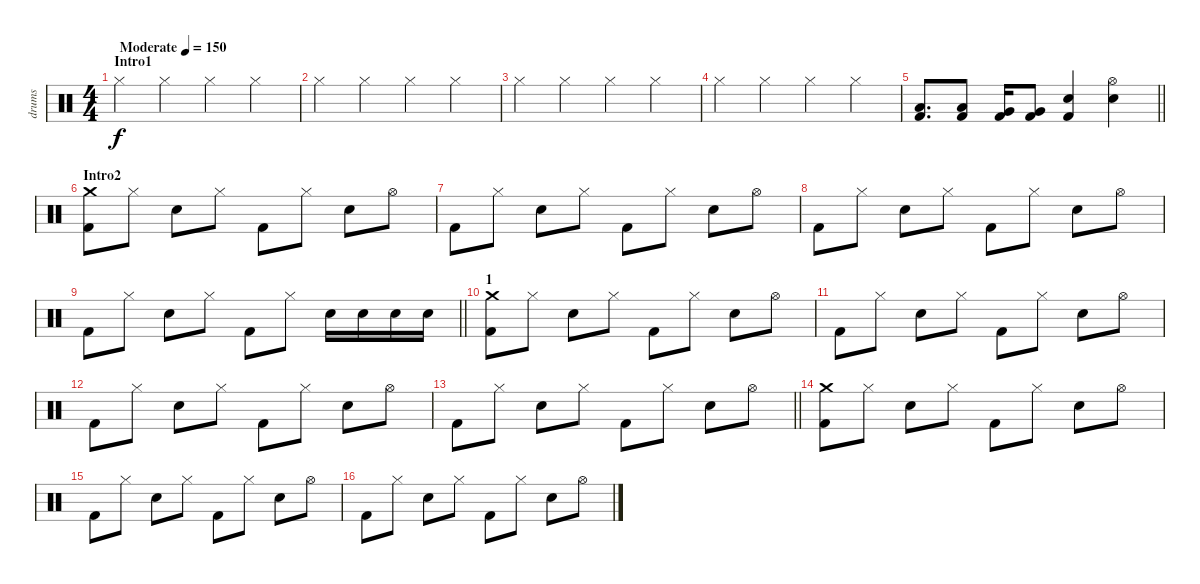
\track ("drums" "drums") {instrument percussion}
\staff {score}
\articulation defaults
\ts (4 4)
\section ("" "Intro1")
\tempo (150 "Moderate")
\clef neutral
\ks c "Hi-Hat (closed)".4{dy f} "Hi-Hat (closed)".4 "Hi-Hat (closed)".4 "Hi-Hat (closed)".4
|
"Hi-Hat (closed)".4 "Hi-Hat (closed)".4 "Hi-Hat (closed)".4 "Hi-Hat (closed)".4 |
"Hi-Hat (closed)".4 "Hi-Hat (closed)".4 "Hi-Hat (closed)".4 "Hi-Hat (closed)".4 |
"Hi-Hat (closed)".4 "Hi-Hat (closed)".4 "Hi-Hat (closed)".4 "Hi-Hat (closed)".4 |
\barLineRight lightlight
("Kick (hit) 2" "Low Floor Tom (hit)").8{d} ("Kick (hit) 2" "Low Floor Tom (hit)").8 ("Kick (hit) 2" "Very Low Tom (hit)").16 ("Kick (hit) 2" "Very Low Tom (hit)").8 ("Kick (hit) 2" "Metronome (bell)").4 ("Electric Snare (hit)" "Hi-Hat (open)").4 |
\section ("" "Intro2")
("Kick (hit) 2" "Crash medium (hit)").8 "Hi-Hat (closed)".8 "Electric Snare (hit)".8 "Hi-Hat (closed)".8 "Kick (hit) 2".8 "Hi-Hat (closed)".8 "Electric Snare (hit)".8 "Hi-Hat (open)".8 |
"Kick (hit) 2".8 "Hi-Hat (closed)".8 "Electric Snare (hit)".8 "Hi-Hat (closed)".8 "Kick (hit) 2".8 "Hi-Hat (closed)".8 "Electric Snare (hit)".8 "Hi-Hat (open)".8 |
"Kick (hit) 2".8 "Hi-Hat (closed)".8 "Electric Snare (hit)".8 "Hi-Hat (closed)".8 "Kick (hit) 2".8 "Hi-Hat (closed)".8 "Electric Snare (hit)".8 "Hi-Hat (open)".8 |
\barLineRight lightlight "Kick (hit) 2".8 "Hi-Hat (closed)".8 "Electric Snare (hit)".8 "Hi-Hat (closed)".8 "Kick (hit) 2".8 "Hi-Hat (closed)".8 "Electric Snare (hit)".16 "Electric Snare (hit)".16 "Electric Snare (hit)".16 "Electric Snare (hit)".16
|
\section ("" "1")
("Kick (hit) 2" "Crash medium (hit)").8 "Hi-Hat (closed)".8 "Electric Snare (hit)".8 "Hi-Hat (closed)".8 "Kick (hit) 2".8 "Hi-Hat (closed)".8 "Electric Snare (hit)".8 "Hi-Hat (open)".8 |
"Kick (hit) 2".8 "Hi-Hat (closed)".8 "Electric Snare (hit)".8 "Hi-Hat (closed)".8 "Kick (hit) 2".8 "Hi-Hat (closed)".8 "Electric Snare (hit)".8 "Hi-Hat (open)".8 |
"Kick (hit) 2".8 "Hi-Hat (closed)".8 "Electric Snare (hit)".8 "Hi-Hat (closed)".8 "Kick (hit) 2".8 "Hi-Hat (closed)".8 "Electric Snare (hit)".8 "Hi-Hat (open)".8 |
\barLineRight lightlight "Kick (hit) 2".8 "Hi-Hat (closed)".8 "Electric Snare (hit)".8 "Hi-Hat (closed)".8 "Kick (hit) 2".8 "Hi-Hat (closed)".8 "Electric Snare (hit)".8 "Hi-Hat (open)".8
|
("Kick (hit) 2" "Crash medium (hit)").8 "Hi-Hat (closed)".8 "Electric Snare (hit)".8 "Hi-Hat (closed)".8 "Kick (hit) 2".8 "Hi-Hat (closed)".8 "Electric Snare (hit)".8 "Hi-Hat (open)".8 |
"Kick (hit) 2".8 "Hi-Hat (closed)".8 "Electric Snare (hit)".8 "Hi-Hat (closed)".8 "Kick (hit) 2".8 "Hi-Hat (closed)".8 "Electric Snare (hit)".8 "Hi-Hat (open)".8 |
"Kick (hit) 2".8 "Hi-Hat (closed)".8 "Electric Snare (hit)".8 "Hi-Hat (closed)".8 "Kick (hit) 2".8 "Hi-Hat (closed)".8 "Electric Snare (hit)".8 "Hi-Hat (open)".8
